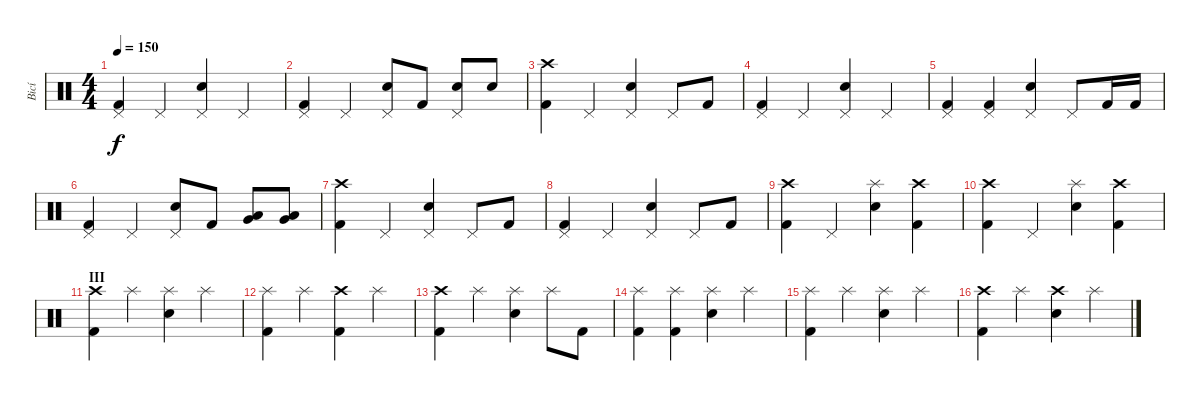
\track ("Bicí" "Bicí") {instrument percussion}
\staff {score}
\articulation defaults
\ts (4 4)
\tempo 150
\clef neutral
\ks c
("Pedal Hi-Hat (hit)" "Kick (hit) 2").4{dy f} "Pedal Hi-Hat (hit)".4 ("Pedal Hi-Hat (hit)" "Electric Snare (hit)").4 "Pedal Hi-Hat (hit)".4 |
("Pedal Hi-Hat (hit)" "Kick (hit) 2").4 "Pedal Hi-Hat (hit)".4 ("Pedal Hi-Hat (hit)" "Electric Snare (hit)").8 "Kick (hit) 2".8 ("Pedal Hi-Hat (hit)" "Electric Snare (hit)").8 "Electric Snare (hit)".8 |
("Crash high (hit)" "Kick (hit) 2").4 "Pedal Hi-Hat (hit)".4 ("Pedal Hi-Hat (hit)" "Electric Snare (hit)").4 "Pedal Hi-Hat (hit)".8 "Kick (hit) 2".8 |
("Pedal Hi-Hat (hit)" "Kick (hit) 2").4 "Pedal Hi-Hat (hit)".4 ("Pedal Hi-Hat (hit)" "Electric Snare (hit)").4 "Pedal Hi-Hat (hit)".4 |
("Pedal Hi-Hat (hit)" "Kick (hit) 2").4 ("Pedal Hi-Hat (hit)" "Kick (hit) 2").4 ("Pedal Hi-Hat (hit)" "Electric Snare (hit)").4 "Pedal Hi-Hat (hit)".8 "Kick (hit) 2".16 "Kick (hit) 2".16 |
("Pedal Hi-Hat (hit)" "Kick (hit) 2").4 "Pedal Hi-Hat (hit)".4 ("Pedal Hi-Hat (hit)" "Electric Snare (hit)").8 "Kick (hit) 2".8 ("Low Floor Tom (hit)" "Very Low Tom (hit)").8{bd 60} ("Low Floor Tom (hit)" "Very Low Tom (hit)").8{bd 60} |
("Crash high (hit)" "Kick (hit) 2").4 "Pedal Hi-Hat (hit)".4 ("Pedal Hi-Hat (hit)" "Electric Snare (hit)").4 "Pedal Hi-Hat (hit)".8 "Kick (hit) 2".8 |
("Pedal Hi-Hat (hit)" "Kick (hit) 2").4 "Pedal Hi-Hat (hit)".4 ("Pedal Hi-Hat (hit)" "Electric Snare (hit)").4 "Pedal Hi-Hat (hit)".8 "Kick (hit) 2".8 |
("Crash high (hit)" "Kick (hit) 2").4 "Pedal Hi-Hat (hit)".4 ("Splash (hit)" "Electric Snare (hit)").4 ("Crash high (hit)" "Kick (hit) 2").4 |
("Crash high (hit)" "Kick (hit) 2").4 "Pedal Hi-Hat (hit)".4 ("Splash (hit)" "Electric Snare (hit)").4 ("Crash high (hit)" "Kick (hit) 2").4 |
\section ("" "III")
("Crash high (hit)" "Kick (hit) 2").4 "Splash (hit)".4 ("Splash (hit)" "Electric Snare (hit)").4 "Splash (hit)".4 |
("Splash (hit)" "Kick (hit) 2").4 "Splash (hit)".4 ("Crash high (hit)" "Kick (hit) 2").4 "Splash (hit)".4 |
("Crash high (hit)" "Kick (hit) 2").4 "Splash (hit)".4 ("Splash (hit)" "Electric Snare (hit)").4 "Splash (hit)".8 "Kick (hit) 2".8 |
("Splash (hit)" "Kick (hit) 2").4 ("Splash (hit)" "Kick (hit) 2").4 ("Splash (hit)" "Electric Snare (hit)").4 "Splash (hit)".4 |
("Splash (hit)" "Kick (hit) 2").4 "Splash (hit)".4 ("Splash (hit)" "Electric Snare (hit)").4 "Splash (hit)".4 |
("Crash high (hit)" "Kick (hit) 2").4 "Splash (hit)".4 ("Crash high (hit)" "Electric Snare (hit)").4 "Splash (hit)".4
